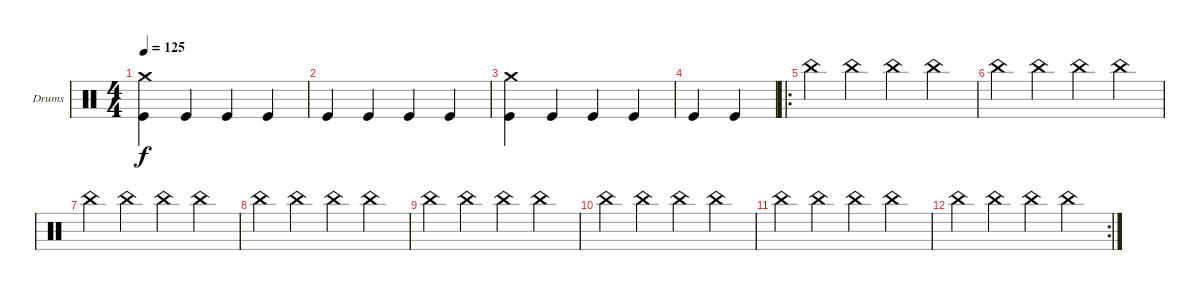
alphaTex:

\defaultSystemsLayout 4
\bracketExtendMode groupsimilarinstruments
\firstSystemTrackNameOrientation horizontal
\otherSystemsTrackNameOrientation horizontal
\track ("Drumkit" "Drums") {instrument percussion}
\staff {score}
\articulation defaults
\ts (4 4)
\tempo 125
\clef neutral
\ks c
("Kick (hit)" "Crash medium (hit)").4{dy f} "Kick (hit)".4 "Kick (hit)".4 "Kick (hit)".4 |
"Kick (hit)".4 "Kick (hit)".4 "Kick (hit)".4 "Kick (hit)".4 |
("Kick (hit)" "Crash medium (hit)").4 "Kick (hit)".4 "Kick (hit)".4 "Kick (hit)".4 |
"Kick (hit)".4 "Kick (hit)".4 |
\ro "China (hit)".4 "China (hit)".4 "China (hit)".4 "China (hit)".4
|
"China (hit)".4 "China (hit)".4 "China (hit)".4 "China (hit)".4 |
"China (hit)".4 "China (hit)".4 "China (hit)".4 "China (hit)".4 |
"China (hit)".4 "China (hit)".4 "China (hit)".4 "China (hit)".4 |
"China (hit)".4 "China (hit)".4 "China (hit)".4 "China (hit)".4 |
"China (hit)".4 "China (hit)".4 "China (hit)".4 "China (hit)".4 |
"China (hit)".4 "China (hit)".4 "China (hit)".4 "China (hit)".4 |
\rc 2 "China (hit)".4 "China (hit)".4 "China (hit)".4 "China (hit)".4
